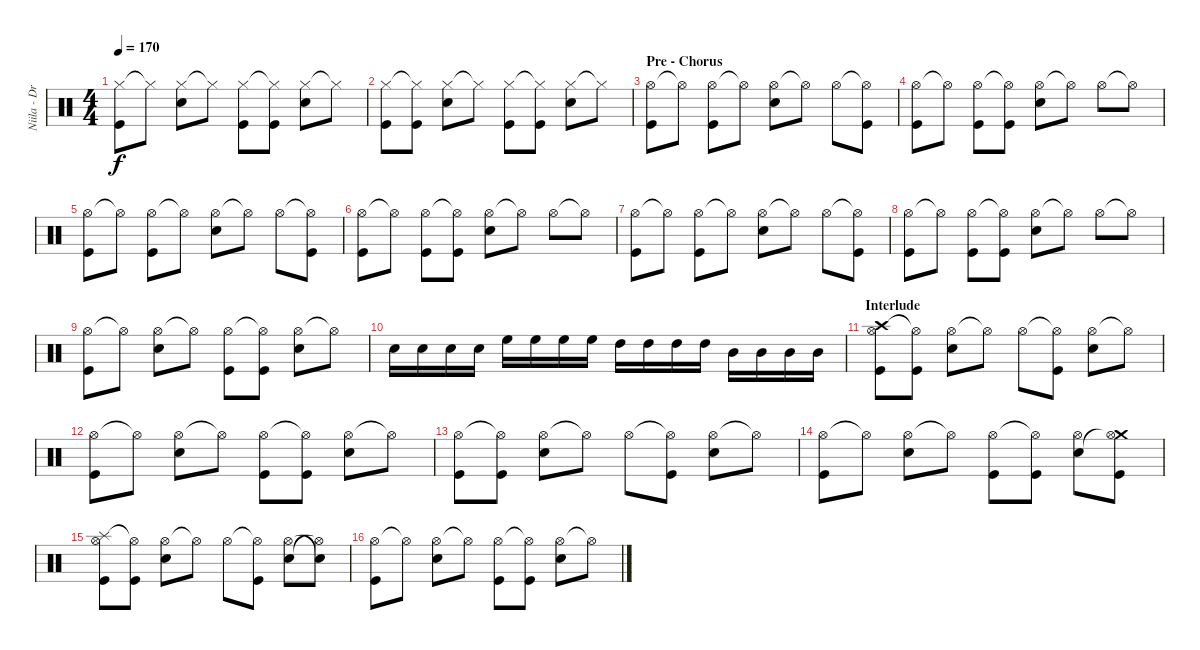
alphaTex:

\track ("Niila - Drums" "Niila - Dr") {instrument percussion}
\staff {score}
\articulation defaults
\ts (4 4)
\tempo 170
\clef neutral
\ks c
("Hi-Hat (closed)" "Kick (hit)").8{dy f} "Hi-Hat (closed)"{t}.8 ("Hi-Hat (closed)" "Snare (hit) 2").8 "Hi-Hat (closed)"{t}.8 ("Hi-Hat (closed)" "Kick (hit)").8 ("Hi-Hat (closed)"{t} "Kick (hit)").8 ("Hi-Hat (closed)" "Snare (hit) 2").8 "Hi-Hat (closed)"{t}.8 |
("Hi-Hat (closed)" "Kick (hit)").8 ("Hi-Hat (closed)"{t} "Kick (hit)").8 ("Hi-Hat (closed)" "Snare (hit) 2").8 "Hi-Hat (closed)"{t}.8 ("Hi-Hat (closed)" "Kick (hit)").8 ("Hi-Hat (closed)"{t} "Kick (hit)").8 ("Hi-Hat (closed)" "Snare (hit) 2").8 "Hi-Hat (closed)"{t}.8 |
\section ("" "Pre - Chorus")
("Hi-Hat (open)" "Kick (hit)").8 "Hi-Hat (open)"{t}.8 ("Hi-Hat (open)" "Kick (hit)").8 "Hi-Hat (open)"{t}.8 ("Hi-Hat (open)" "Snare (hit) 2").8 "Hi-Hat (open)"{t}.8 "Hi-Hat (open)".8 ("Hi-Hat (open)"{t} "Kick (hit)").8 |
("Hi-Hat (open)" "Kick (hit)").8 "Hi-Hat (open)"{t}.8 ("Hi-Hat (open)" "Kick (hit)").8 ("Hi-Hat (open)"{t} "Kick (hit)").8 ("Hi-Hat (open)" "Snare (hit) 2").8 "Hi-Hat (open)"{t}.8 "Hi-Hat (open)".8 "Hi-Hat (open)"{t}.8 |
("Hi-Hat (open)" "Kick (hit)").8 "Hi-Hat (open)"{t}.8 ("Hi-Hat (open)" "Kick (hit)").8 "Hi-Hat (open)"{t}.8 ("Hi-Hat (open)" "Snare (hit) 2").8 "Hi-Hat (open)"{t}.8 "Hi-Hat (open)".8 ("Hi-Hat (open)"{t} "Kick (hit)").8 |
("Hi-Hat (open)" "Kick (hit)").8 "Hi-Hat (open)"{t}.8 ("Hi-Hat (open)" "Kick (hit)").8 ("Hi-Hat (open)"{t} "Kick (hit)").8 ("Hi-Hat (open)" "Snare (hit) 2").8 "Hi-Hat (open)"{t}.8 "Hi-Hat (open)".8 "Hi-Hat (open)"{t}.8 |
("Hi-Hat (open)" "Kick (hit)").8 "Hi-Hat (open)"{t}.8 ("Hi-Hat (open)" "Kick (hit)").8 "Hi-Hat (open)"{t}.8 ("Hi-Hat (open)" "Snare (hit) 2").8 "Hi-Hat (open)"{t}.8 "Hi-Hat (open)".8 ("Hi-Hat (open)"{t} "Kick (hit)").8 |
("Hi-Hat (open)" "Kick (hit)").8 "Hi-Hat (open)"{t}.8 ("Hi-Hat (open)" "Kick (hit)").8 ("Hi-Hat (open)"{t} "Kick (hit)").8 ("Hi-Hat (open)" "Snare (hit) 2").8 "Hi-Hat (open)"{t}.8 "Hi-Hat (open)".8 "Hi-Hat (open)"{t}.8 |
("Hi-Hat (open)" "Kick (hit)").8 "Hi-Hat (open)"{t}.8 ("Hi-Hat (open)" "Snare (hit) 2").8 "Hi-Hat (open)"{t}.8 ("Hi-Hat (open)" "Kick (hit)").8 ("Hi-Hat (open)"{t} "Kick (hit)").8 ("Hi-Hat (open)" "Snare (hit) 2").8 "Hi-Hat (open)"{t}.8 |
"Snare (hit) 2".16 "Snare (hit) 2".16 "Snare (hit) 2".16 "Snare (hit) 2".16 "High Floor Tom (hit)".16 "High Floor Tom (hit)".16 "High Floor Tom (hit)".16 "High Floor Tom (hit)".16 "High Tom (hit)".16 "High Tom (hit)".16 "High Tom (hit)".16 "High Tom (hit)".16 "Mid Tom (hit)".16 "Mid Tom (hit)".16 "Mid Tom (hit)".16 "Mid Tom (hit)".16 |
\section ("" "Interlude")
("Crash high (hit)" "Hi-Hat (open)" "Kick (hit)").8 ("Hi-Hat (open)"{t} "Kick (hit)").8 ("Hi-Hat (open)" "Snare (hit) 2").8 "Hi-Hat (open)"{t}.8 "Hi-Hat (open)".8 ("Hi-Hat (open)"{t} "Kick (hit)").8 ("Hi-Hat (open)" "Snare (hit) 2").8 "Hi-Hat (open)"{t}.8 |
("Hi-Hat (open)" "Kick (hit)").8 "Hi-Hat (open)"{t}.8 ("Hi-Hat (open)" "Snare (hit) 2").8 "Hi-Hat (open)"{t}.8 ("Hi-Hat (open)" "Kick (hit)").8 ("Hi-Hat (open)"{t} "Kick (hit)").8 ("Hi-Hat (open)" "Snare (hit) 2").8 "Hi-Hat (open)"{t}.8 |
("Hi-Hat (open)" "Kick (hit)").8 ("Hi-Hat (open)"{t} "Kick (hit)").8 ("Hi-Hat (open)" "Snare (hit) 2").8 "Hi-Hat (open)"{t}.8 "Hi-Hat (open)".8 ("Hi-Hat (open)"{t} "Kick (hit)").8 ("Hi-Hat (open)" "Snare (hit) 2").8 "Hi-Hat (open)"{t}.8 |
("Hi-Hat (open)" "Kick (hit)").8 "Hi-Hat (open)"{t}.8 ("Hi-Hat (open)" "Snare (hit) 2").8 "Hi-Hat (open)"{t}.8 ("Hi-Hat (open)" "Kick (hit)").8 ("Hi-Hat (open)"{t} "Kick (hit)").8 ("Hi-Hat (open)" "Snare (hit) 2").8 ("Crash medium (hit)" "Hi-Hat (open)"{t} "Kick (hit)").8 |
("Splash (hit)" "Hi-Hat (open)" "Kick (hit)").8 ("Hi-Hat (open)"{t} "Kick (hit)").8 ("Hi-Hat (open)" "Snare (hit) 2").8 "Hi-Hat (open)"{t}.8 "Hi-Hat (open)".8 ("Hi-Hat (open)"{t} "Kick (hit)").8 ("Hi-Hat (open)" "Snare (hit) 2").8 ("Snare (hit)"{t} "Hi-Hat (open)"{t}).8 |
("Hi-Hat (open)" "Kick (hit)").8 "Hi-Hat (open)"{t}.8 ("Hi-Hat (open)" "Snare (hit) 2").8 "Hi-Hat (open)"{t}.8 ("Hi-Hat (open)" "Kick (hit)").8 ("Hi-Hat (open)"{t} "Kick (hit)").8 ("Hi-Hat (open)" "Snare (hit) 2").8 "Hi-Hat (open)"{t}.8
